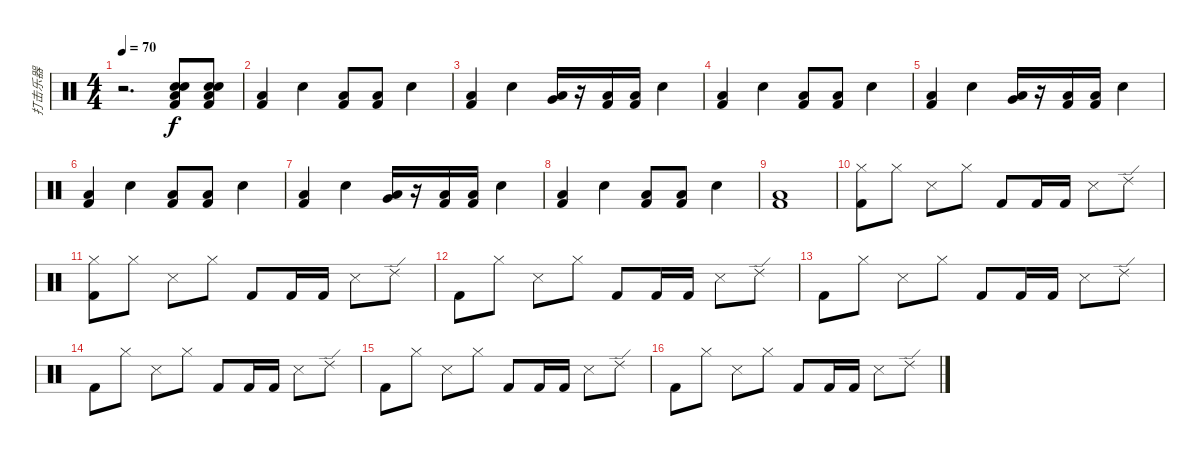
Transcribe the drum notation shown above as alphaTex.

\track ("打击乐器" "打击乐器") {instrument percussion bank 5}
\staff {score}
\articulation defaults
\ts (4 4)
\tempo 70
\clef neutral
\ks c
r.2{d dy f} ("Electric Snare (hit)" "Snare (hit) 2" "Low Floor Tom (hit)" "Kick (hit) 2").8 ("Electric Snare (hit)" "Snare (hit) 2" "Low Floor Tom (hit)" "Kick (hit) 2").8 |
("Low Floor Tom (hit)" "Kick (hit) 2").4 "Electric Snare (hit)".4 ("Low Floor Tom (hit)" "Kick (hit) 2").8 ("Low Floor Tom (hit)" "Kick (hit) 2").8 "Electric Snare (hit)".4 |
("Low Floor Tom (hit)" "Kick (hit) 2").4 "Electric Snare (hit)".4 ("Low Floor Tom (hit)" "Very Low Tom (hit)").16 r.16 ("Low Floor Tom (hit)" "Kick (hit) 2").16 ("Low Floor Tom (hit)" "Kick (hit) 2").16 "Electric Snare (hit)".4 |
("Low Floor Tom (hit)" "Kick (hit) 2").4 "Electric Snare (hit)".4 ("Low Floor Tom (hit)" "Kick (hit) 2").8 ("Low Floor Tom (hit)" "Kick (hit) 2").8 "Electric Snare (hit)".4 |
("Low Floor Tom (hit)" "Kick (hit) 2").4 "Electric Snare (hit)".4 ("Low Floor Tom (hit)" "Very Low Tom (hit)").16 r.16 ("Low Floor Tom (hit)" "Kick (hit) 2").16 ("Low Floor Tom (hit)" "Kick (hit) 2").16 "Electric Snare (hit)".4 |
("Low Floor Tom (hit)" "Kick (hit) 2").4 "Electric Snare (hit)".4 ("Low Floor Tom (hit)" "Kick (hit) 2").8 ("Low Floor Tom (hit)" "Kick (hit) 2").8 "Electric Snare (hit)".4 |
("Low Floor Tom (hit)" "Kick (hit) 2").4 "Electric Snare (hit)".4 ("Low Floor Tom (hit)" "Very Low Tom (hit)").16 r.16 ("Low Floor Tom (hit)" "Kick (hit) 2").16 ("Low Floor Tom (hit)" "Kick (hit) 2").16 "Electric Snare (hit)".4 |
("Low Floor Tom (hit)" "Kick (hit) 2").4 "Electric Snare (hit)".4 ("Low Floor Tom (hit)" "Kick (hit) 2").8 ("Low Floor Tom (hit)" "Kick (hit) 2").8 "Electric Snare (hit)".4 |
("Low Floor Tom (hit)" "Kick (hit) 2").1 |
("Hi-Hat (closed)" "Kick (hit) 2").8 "Hi-Hat (closed)".8 "Snare (side stick) 3".8 "Hi-Hat (closed)".8 "Kick (hit) 2".8 "Kick (hit) 2".16 "Kick (hit) 2".16 "Snare (side stick) 3".8 "Ride (edge) 2".8 |
("Hi-Hat (closed)" "Kick (hit) 2").8 "Hi-Hat (closed)".8 "Snare (side stick) 3".8 "Hi-Hat (closed)".8 "Kick (hit) 2".8 "Kick (hit) 2".16 "Kick (hit) 2".16 "Snare (side stick) 3".8 "Ride (edge) 2".8 |
"Kick (hit) 2".8 "Hi-Hat (closed)".8 "Snare (side stick) 3".8 "Hi-Hat (closed)".8 "Kick (hit) 2".8 "Kick (hit) 2".16 "Kick (hit) 2".16 "Snare (side stick) 3".8 "Ride (edge) 2".8 |
"Kick (hit) 2".8 "Hi-Hat (closed)".8 "Snare (side stick) 3".8 "Hi-Hat (closed)".8 "Kick (hit) 2".8 "Kick (hit) 2".16 "Kick (hit) 2".16 "Snare (side stick) 3".8 "Ride (edge) 2".8 |
"Kick (hit) 2".8 "Hi-Hat (closed)".8 "Snare (side stick) 3".8 "Hi-Hat (closed)".8 "Kick (hit) 2".8 "Kick (hit) 2".16 "Kick (hit) 2".16 "Snare (side stick) 3".8 "Ride (edge) 2".8 |
"Kick (hit) 2".8 "Hi-Hat (closed)".8 "Snare (side stick) 3".8 "Hi-Hat (closed)".8 "Kick (hit) 2".8 "Kick (hit) 2".16 "Kick (hit) 2".16 "Snare (side stick) 3".8 "Ride (edge) 2".8 |
"Kick (hit) 2".8 "Hi-Hat (closed)".8 "Snare (side stick) 3".8 "Hi-Hat (closed)".8 "Kick (hit) 2".8 "Kick (hit) 2".16 "Kick (hit) 2".16 "Snare (side stick) 3".8 "Ride (edge) 2".8
